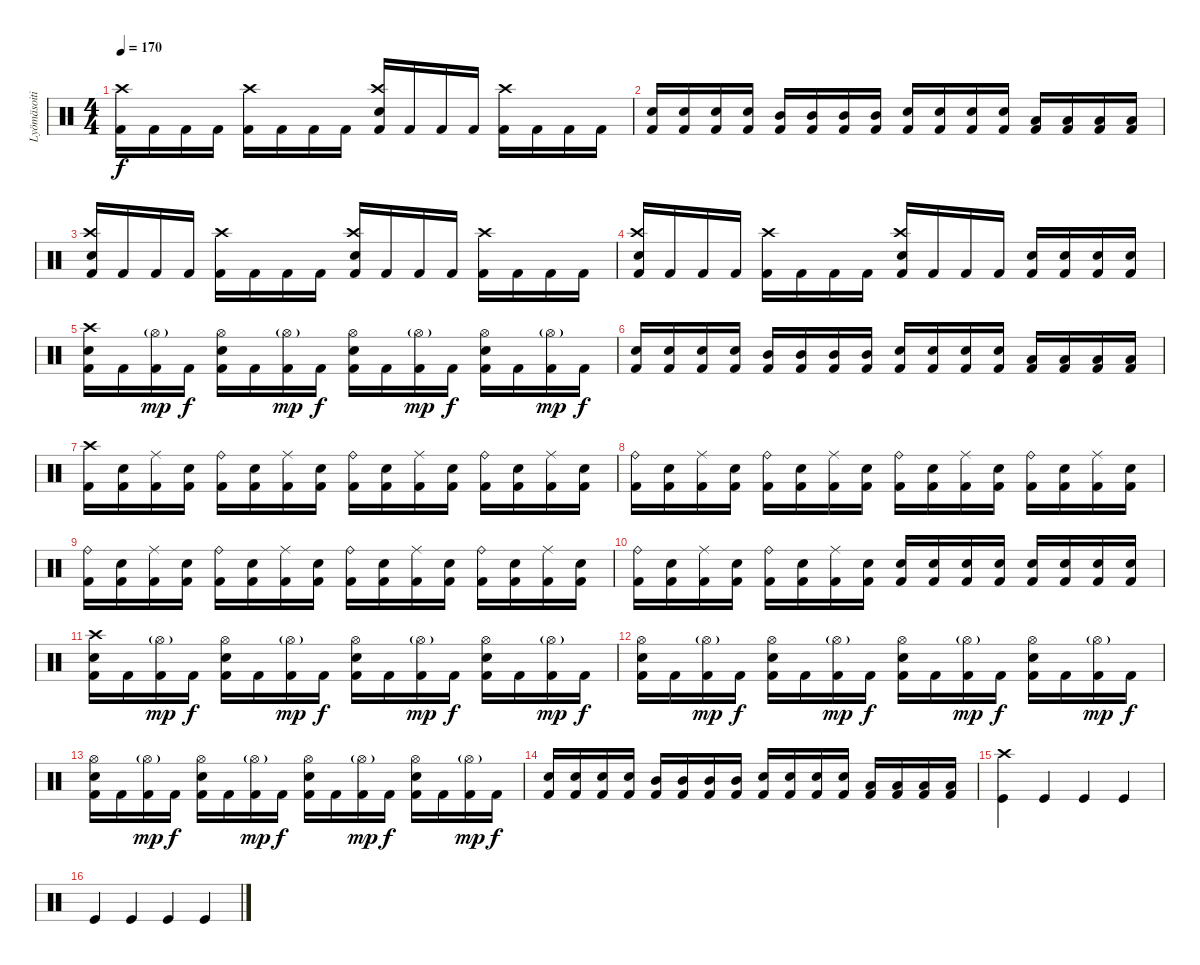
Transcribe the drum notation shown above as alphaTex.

\track ("Lyömäsoitin" "Lyömäsoiti") {instrument percussion}
\staff {score}
\articulation defaults
\ts (4 4)
\tempo 170
\clef neutral
\ks c
("Kick (hit) 2" "Crash high (hit)").16{dy f} "Kick (hit) 2".16 "Kick (hit) 2".16 "Kick (hit) 2".16 ("Kick (hit) 2" "Crash high (hit)").16 "Kick (hit) 2".16 "Kick (hit) 2".16 "Kick (hit) 2".16 ("Kick (hit) 2" "Electric Snare (hit)" "Crash high (hit)").16 "Kick (hit) 2".16 "Kick (hit) 2".16 "Kick (hit) 2".16 ("Kick (hit) 2" "Crash high (hit)").16 "Kick (hit) 2".16 "Kick (hit) 2".16 "Kick (hit) 2".16 |
("Kick (hit) 2" "Electric Snare (hit)").16 ("Kick (hit) 2" "Electric Snare (hit)").16 ("Kick (hit) 2" "Electric Snare (hit)").16 ("Kick (hit) 2" "Electric Snare (hit)").16 ("Kick (hit) 2" "Mid Tom (hit)").16 ("Kick (hit) 2" "Mid Tom (hit)").16 ("Kick (hit) 2" "Mid Tom (hit)").16 ("Kick (hit) 2" "Mid Tom (hit)").16 ("Kick (hit) 2" "Electric Snare (hit)").16 ("Kick (hit) 2" "Electric Snare (hit)").16 ("Kick (hit) 2" "Electric Snare (hit)").16 ("Kick (hit) 2" "Electric Snare (hit)").16 ("Kick (hit) 2" "Low Floor Tom (hit)").16 ("Kick (hit) 2" "Low Floor Tom (hit)").16 ("Kick (hit) 2" "Low Floor Tom (hit)").16 ("Kick (hit) 2" "Low Floor Tom (hit)").16 |
("Kick (hit) 2" "Electric Snare (hit)" "Crash high (hit)").16 "Kick (hit) 2".16 "Kick (hit) 2".16 "Kick (hit) 2".16 ("Kick (hit) 2" "Crash high (hit)").16 "Kick (hit) 2".16 "Kick (hit) 2".16 "Kick (hit) 2".16 ("Kick (hit) 2" "Electric Snare (hit)" "Crash high (hit)").16 "Kick (hit) 2".16 "Kick (hit) 2".16 "Kick (hit) 2".16 ("Kick (hit) 2" "Crash high (hit)").16 "Kick (hit) 2".16 "Kick (hit) 2".16 "Kick (hit) 2".16 |
("Kick (hit) 2" "Electric Snare (hit)" "Crash high (hit)").16 "Kick (hit) 2".16 "Kick (hit) 2".16 "Kick (hit) 2".16 ("Kick (hit) 2" "Crash high (hit)").16 "Kick (hit) 2".16 "Kick (hit) 2".16 "Kick (hit) 2".16 ("Kick (hit) 2" "Electric Snare (hit)" "Crash high (hit)").16 "Kick (hit) 2".16 "Kick (hit) 2".16 "Kick (hit) 2".16 ("Kick (hit) 2" "Electric Snare (hit)").16 ("Kick (hit) 2" "Electric Snare (hit)").16 ("Kick (hit) 2" "Electric Snare (hit)").16 ("Kick (hit) 2" "Electric Snare (hit)").16 |
("Kick (hit) 2" "Electric Snare (hit)" "Crash high (hit)").16 "Kick (hit) 2".16 ("Kick (hit) 2" "Hi-Hat (open)"{g}).16{dy mp} "Kick (hit) 2".16{dy f} ("Kick (hit) 2" "Electric Snare (hit)" "Hi-Hat (open)").16 "Kick (hit) 2".16 ("Kick (hit) 2" "Hi-Hat (open)"{g}).16{dy mp} "Kick (hit) 2".16{dy f} ("Kick (hit) 2" "Electric Snare (hit)" "Hi-Hat (open)").16 "Kick (hit) 2".16 ("Kick (hit) 2" "Hi-Hat (open)"{g}).16{dy mp} "Kick (hit) 2".16{dy f} ("Kick (hit) 2" "Electric Snare (hit)" "Hi-Hat (open)").16 "Kick (hit) 2".16 ("Kick (hit) 2" "Hi-Hat (open)"{g}).16{dy mp} "Kick (hit) 2".16{dy f} |
("Kick (hit) 2" "Electric Snare (hit)").16 ("Kick (hit) 2" "Electric Snare (hit)").16 ("Kick (hit) 2" "Electric Snare (hit)").16 ("Kick (hit) 2" "Electric Snare (hit)").16 ("Kick (hit) 2" "Mid Tom (hit)").16 ("Kick (hit) 2" "Mid Tom (hit)").16 ("Kick (hit) 2" "Mid Tom (hit)").16 ("Kick (hit) 2" "Mid Tom (hit)").16 ("Kick (hit) 2" "Electric Snare (hit)").16 ("Kick (hit) 2" "Electric Snare (hit)").16 ("Kick (hit) 2" "Electric Snare (hit)").16 ("Kick (hit) 2" "Electric Snare (hit)").16 ("Kick (hit) 2" "Low Floor Tom (hit)").16 ("Kick (hit) 2" "Low Floor Tom (hit)").16 ("Kick (hit) 2" "Low Floor Tom (hit)").16 ("Kick (hit) 2" "Low Floor Tom (hit)").16 |
("Kick (hit) 2" "Crash high (hit)").16 ("Kick (hit) 2" "Electric Snare (hit)").16 ("Kick (hit) 2" "Ride (middle)").16 ("Kick (hit) 2" "Electric Snare (hit)").16 ("Kick (hit) 2" "Ride (bell)").16 ("Kick (hit) 2" "Electric Snare (hit)").16 ("Kick (hit) 2" "Ride (middle)").16 ("Kick (hit) 2" "Electric Snare (hit)").16 ("Kick (hit) 2" "Ride (bell)").16 ("Kick (hit) 2" "Electric Snare (hit)").16 ("Kick (hit) 2" "Ride (middle)").16 ("Kick (hit) 2" "Electric Snare (hit)").16 ("Kick (hit) 2" "Ride (bell)").16 ("Kick (hit) 2" "Electric Snare (hit)").16 ("Kick (hit) 2" "Ride (middle)").16 ("Kick (hit) 2" "Electric Snare (hit)").16 |
("Kick (hit) 2" "Ride (bell)").16 ("Kick (hit) 2" "Electric Snare (hit)").16 ("Kick (hit) 2" "Ride (middle)").16 ("Kick (hit) 2" "Electric Snare (hit)").16 ("Kick (hit) 2" "Ride (bell)").16 ("Kick (hit) 2" "Electric Snare (hit)").16 ("Kick (hit) 2" "Ride (middle)").16 ("Kick (hit) 2" "Electric Snare (hit)").16 ("Kick (hit) 2" "Ride (bell)").16 ("Kick (hit) 2" "Electric Snare (hit)").16 ("Kick (hit) 2" "Ride (middle)").16 ("Kick (hit) 2" "Electric Snare (hit)").16 ("Kick (hit) 2" "Ride (bell)").16 ("Kick (hit) 2" "Electric Snare (hit)").16 ("Kick (hit) 2" "Ride (middle)").16 ("Kick (hit) 2" "Electric Snare (hit)").16 |
("Kick (hit) 2" "Ride (bell)").16 ("Kick (hit) 2" "Electric Snare (hit)").16 ("Kick (hit) 2" "Ride (middle)").16 ("Kick (hit) 2" "Electric Snare (hit)").16 ("Kick (hit) 2" "Ride (bell)").16 ("Kick (hit) 2" "Electric Snare (hit)").16 ("Kick (hit) 2" "Ride (middle)").16 ("Kick (hit) 2" "Electric Snare (hit)").16 ("Kick (hit) 2" "Ride (bell)").16 ("Kick (hit) 2" "Electric Snare (hit)").16 ("Kick (hit) 2" "Ride (middle)").16 ("Kick (hit) 2" "Electric Snare (hit)").16 ("Kick (hit) 2" "Ride (bell)").16 ("Kick (hit) 2" "Electric Snare (hit)").16 ("Kick (hit) 2" "Ride (middle)").16 ("Kick (hit) 2" "Electric Snare (hit)").16 |
("Kick (hit) 2" "Ride (bell)").16 ("Kick (hit) 2" "Electric Snare (hit)").16 ("Kick (hit) 2" "Ride (middle)").16 ("Kick (hit) 2" "Electric Snare (hit)").16 ("Kick (hit) 2" "Ride (bell)").16 ("Kick (hit) 2" "Electric Snare (hit)").16 ("Kick (hit) 2" "Ride (middle)").16 ("Kick (hit) 2" "Electric Snare (hit)").16 ("Kick (hit) 2" "Electric Snare (hit)").16 ("Kick (hit) 2" "Electric Snare (hit)").16 ("Kick (hit) 2" "Electric Snare (hit)").16 ("Kick (hit) 2" "Electric Snare (hit)").16 ("Kick (hit) 2" "Electric Snare (hit)").16 ("Kick (hit) 2" "Electric Snare (hit)").16 ("Kick (hit) 2" "Electric Snare (hit)").16 ("Kick (hit) 2" "Electric Snare (hit)").16 |
("Kick (hit) 2" "Electric Snare (hit)" "Crash high (hit)").16 "Kick (hit) 2".16 ("Kick (hit) 2" "Hi-Hat (open)"{g}).16{dy mp} "Kick (hit) 2".16{dy f} ("Kick (hit) 2" "Electric Snare (hit)" "Hi-Hat (open)").16 "Kick (hit) 2".16 ("Kick (hit) 2" "Hi-Hat (open)"{g}).16{dy mp} "Kick (hit) 2".16{dy f} ("Kick (hit) 2" "Electric Snare (hit)" "Hi-Hat (open)").16 "Kick (hit) 2".16 ("Kick (hit) 2" "Hi-Hat (open)"{g}).16{dy mp} "Kick (hit) 2".16{dy f} ("Kick (hit) 2" "Electric Snare (hit)" "Hi-Hat (open)").16 "Kick (hit) 2".16 ("Kick (hit) 2" "Hi-Hat (open)"{g}).16{dy mp} "Kick (hit) 2".16{dy f} |
("Kick (hit) 2" "Electric Snare (hit)" "Hi-Hat (open)").16 "Kick (hit) 2".16 ("Kick (hit) 2" "Hi-Hat (open)"{g}).16{dy mp} "Kick (hit) 2".16{dy f} ("Kick (hit) 2" "Electric Snare (hit)" "Hi-Hat (open)").16 "Kick (hit) 2".16 ("Kick (hit) 2" "Hi-Hat (open)"{g}).16{dy mp} "Kick (hit) 2".16{dy f} ("Kick (hit) 2" "Electric Snare (hit)" "Hi-Hat (open)").16 "Kick (hit) 2".16 ("Kick (hit) 2" "Hi-Hat (open)"{g}).16{dy mp} "Kick (hit) 2".16{dy f} ("Kick (hit) 2" "Electric Snare (hit)" "Hi-Hat (open)").16 "Kick (hit) 2".16 ("Kick (hit) 2" "Hi-Hat (open)"{g}).16{dy mp} "Kick (hit) 2".16{dy f} |
("Kick (hit) 2" "Electric Snare (hit)" "Hi-Hat (open)").16 "Kick (hit) 2".16 ("Kick (hit) 2" "Hi-Hat (open)"{g}).16{dy mp} "Kick (hit) 2".16{dy f} ("Kick (hit) 2" "Electric Snare (hit)" "Hi-Hat (open)").16 "Kick (hit) 2".16 ("Kick (hit) 2" "Hi-Hat (open)"{g}).16{dy mp} "Kick (hit) 2".16{dy f} ("Kick (hit) 2" "Electric Snare (hit)" "Hi-Hat (open)").16 "Kick (hit) 2".16 ("Kick (hit) 2" "Hi-Hat (open)"{g}).16{dy mp} "Kick (hit) 2".16{dy f} ("Kick (hit) 2" "Electric Snare (hit)" "Hi-Hat (open)").16 "Kick (hit) 2".16 ("Kick (hit) 2" "Hi-Hat (open)"{g}).16{dy mp} "Kick (hit) 2".16{dy f} |
("Kick (hit) 2" "Electric Snare (hit)").16 ("Kick (hit) 2" "Electric Snare (hit)").16 ("Kick (hit) 2" "Electric Snare (hit)").16 ("Kick (hit) 2" "Electric Snare (hit)").16 ("Kick (hit) 2" "Mid Tom (hit)").16 ("Kick (hit) 2" "Mid Tom (hit)").16 ("Kick (hit) 2" "Mid Tom (hit)").16 ("Kick (hit) 2" "Mid Tom (hit)").16 ("Kick (hit) 2" "Electric Snare (hit)").16 ("Kick (hit) 2" "Electric Snare (hit)").16 ("Kick (hit) 2" "Electric Snare (hit)").16 ("Kick (hit) 2" "Electric Snare (hit)").16 ("Kick (hit) 2" "Low Floor Tom (hit)").16 ("Kick (hit) 2" "Low Floor Tom (hit)").16 ("Kick (hit) 2" "Low Floor Tom (hit)").16 ("Kick (hit) 2" "Low Floor Tom (hit)").16 |
("Kick (hit)" "Crash high (hit)").4 "Kick (hit)".4 "Kick (hit)".4 "Kick (hit)".4 |
"Kick (hit)".4 "Kick (hit)".4 "Kick (hit)".4 "Kick (hit)".4
